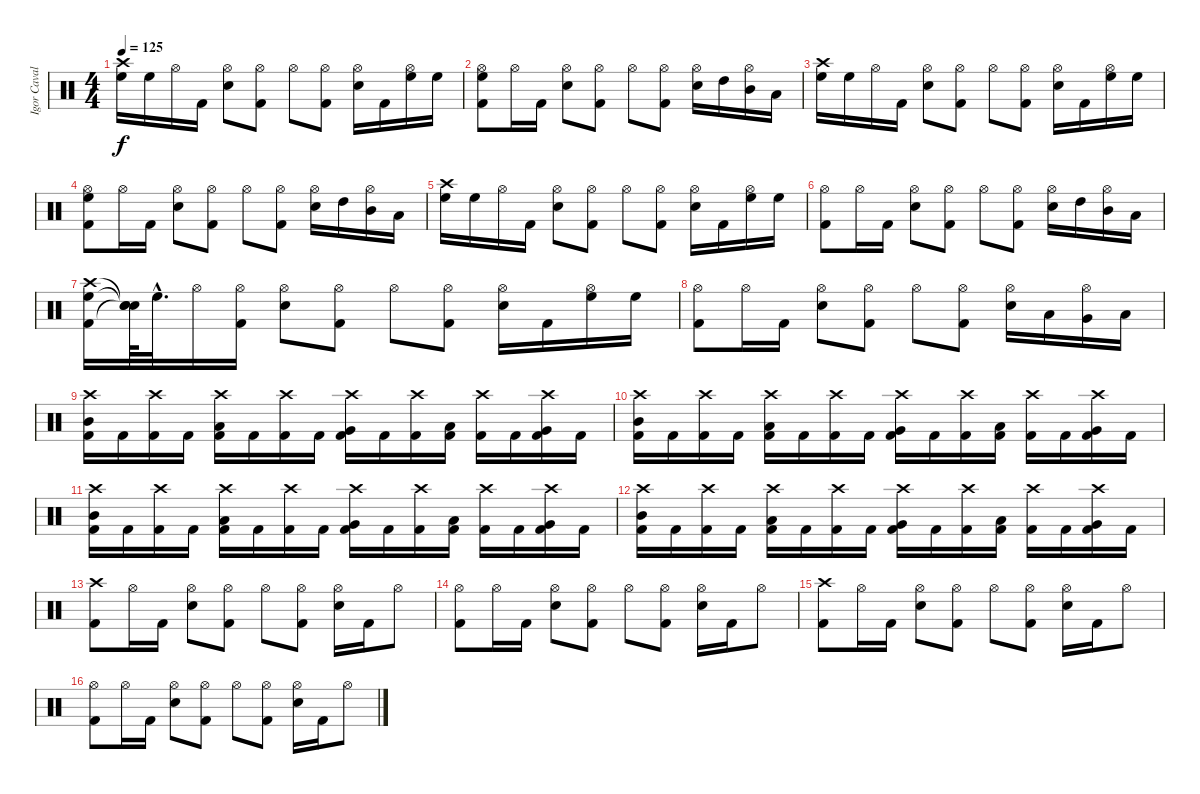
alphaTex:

\track ("Igor Cavalera" "Igor Caval") {instrument percussion}
\staff {score}
\articulation defaults
\ts (4 4)
\tempo 125
\clef neutral
\ks c
("Crash high (hit)" "High Floor Tom (hit)").16{dy f} "High Floor Tom (hit)".16 "Hi-Hat (open)".16 "Kick (hit) 2".16 ("Hi-Hat (open)" "Electric Snare (hit)").8 ("Hi-Hat (open)" "Kick (hit) 2").8 "Hi-Hat (open)".8 ("Hi-Hat (open)" "Kick (hit) 2").8 ("Hi-Hat (open)" "Electric Snare (hit)").16 "Kick (hit) 2".16 ("Hi-Hat (open)" "High Floor Tom (hit)").16 "High Floor Tom (hit)".16 |
("Hi-Hat (open)" "High Floor Tom (hit)" "Kick (hit) 2").8 "Hi-Hat (open)".16 "Kick (hit) 2".16 ("Hi-Hat (open)" "Electric Snare (hit)").8 ("Hi-Hat (open)" "Kick (hit) 2").8 "Hi-Hat (open)".8 ("Hi-Hat (open)" "Kick (hit) 2").8 ("Hi-Hat (open)" "Electric Snare (hit)").16 "High Tom (hit)".16 ("Hi-Hat (open)" "Mid Tom (hit)").16 "Low Tom (hit)".16 |
("Crash high (hit)" "High Floor Tom (hit)").16 "High Floor Tom (hit)".16 "Hi-Hat (open)".16 "Kick (hit) 2".16 ("Hi-Hat (open)" "Electric Snare (hit)").8 ("Hi-Hat (open)" "Kick (hit) 2").8 "Hi-Hat (open)".8 ("Hi-Hat (open)" "Kick (hit) 2").8 ("Hi-Hat (open)" "Electric Snare (hit)").16 "Kick (hit) 2".16 ("Hi-Hat (open)" "High Floor Tom (hit)").16 "High Floor Tom (hit)".16 |
("Hi-Hat (open)" "High Floor Tom (hit)" "Kick (hit) 2").8 "Hi-Hat (open)".16 "Kick (hit) 2".16 ("Hi-Hat (open)" "Electric Snare (hit)").8 ("Hi-Hat (open)" "Kick (hit) 2").8 "Hi-Hat (open)".8 ("Hi-Hat (open)" "Kick (hit) 2").8 ("Hi-Hat (open)" "Electric Snare (hit)").16 "High Tom (hit)".16 ("Hi-Hat (open)" "Mid Tom (hit)").16 "Low Tom (hit)".16 |
("Crash high (hit)" "High Floor Tom (hit)").16 "High Floor Tom (hit)".16 "Hi-Hat (open)".16 "Kick (hit) 2".16 ("Hi-Hat (open)" "Electric Snare (hit)").8 ("Hi-Hat (open)" "Kick (hit) 2").8 "Hi-Hat (open)".8 ("Hi-Hat (open)" "Kick (hit) 2").8 ("Hi-Hat (open)" "Electric Snare (hit)").16 "Kick (hit) 2".16 ("Hi-Hat (open)" "High Floor Tom (hit)").16 "High Floor Tom (hit)".16 |
("Hi-Hat (open)" "Kick (hit) 2").8 "Hi-Hat (open)".16 "Kick (hit) 2".16 ("Hi-Hat (open)" "Electric Snare (hit)").8 ("Hi-Hat (open)" "Kick (hit) 2").8 "Hi-Hat (open)".8 ("Hi-Hat (open)" "Kick (hit) 2").8 ("Hi-Hat (open)" "Electric Snare (hit)").16 "High Tom (hit)".16 ("Hi-Hat (open)" "Mid Tom (hit)").16 "Low Tom (hit)".16 |
("Crash high (hit)" "High Floor Tom (hit)" "Kick (hit) 2").16 ("Snare (hit)"{t} "Snare (hit)"{t} "Snare (hit)"{t}).64 "High Floor Tom (hit)"{hac}.32{d} "Hi-Hat (open)".16 ("Hi-Hat (open)" "Kick (hit) 2").16 ("Hi-Hat (open)" "Electric Snare (hit)").8 ("Hi-Hat (open)" "Kick (hit) 2").8 "Hi-Hat (open)".8 ("Hi-Hat (open)" "Kick (hit) 2").8 ("Hi-Hat (open)" "Electric Snare (hit)").16 "Kick (hit) 2".16 ("Hi-Hat (open)" "High Floor Tom (hit)").16 "High Floor Tom (hit)".16 |
("Hi-Hat (open)" "Kick (hit) 2").8 "Hi-Hat (open)".16 "Kick (hit) 2".16 ("Hi-Hat (open)" "Electric Snare (hit)").8 ("Hi-Hat (open)" "Kick (hit) 2").8 "Hi-Hat (open)".8 ("Hi-Hat (open)" "Kick (hit) 2").8 ("Hi-Hat (open)" "Electric Snare (hit)").16 "Low Tom (hit)".16 ("Hi-Hat (open)" "Very Low Tom (hit)").16 "Low Floor Tom (hit)".16 |
("Crash high (hit)" "Mid Tom (hit)" "Kick (hit) 2").16 "Kick (hit) 2".16 ("Crash high (hit)" "Kick (hit) 2").16 "Kick (hit) 2".16 ("Crash high (hit)" "Low Tom (hit)" "Kick (hit) 2").16 "Kick (hit) 2".16 ("Crash high (hit)" "Kick (hit) 2").16 "Kick (hit) 2".16 ("Crash high (hit)" "Very Low Tom (hit)" "Kick (hit) 2").16 "Kick (hit) 2".16 ("Crash high (hit)" "Kick (hit) 2").16 ("Low Floor Tom (hit)" "Kick (hit) 2").16 ("Crash high (hit)" "Kick (hit) 2").16 "Kick (hit) 2".16 ("Crash high (hit)" "Very Low Tom (hit)" "Kick (hit) 2").16 "Kick (hit) 2".16 |
("Crash high (hit)" "Mid Tom (hit)" "Kick (hit) 2").16 "Kick (hit) 2".16 ("Crash high (hit)" "Kick (hit) 2").16 "Kick (hit) 2".16 ("Crash high (hit)" "Low Tom (hit)" "Kick (hit) 2").16 "Kick (hit) 2".16 ("Crash high (hit)" "Kick (hit) 2").16 "Kick (hit) 2".16 ("Crash high (hit)" "Very Low Tom (hit)" "Kick (hit) 2").16 "Kick (hit) 2".16 ("Crash high (hit)" "Kick (hit) 2").16 ("Low Floor Tom (hit)" "Kick (hit) 2").16 ("Crash high (hit)" "Kick (hit) 2").16 "Kick (hit) 2".16 ("Crash high (hit)" "Very Low Tom (hit)" "Kick (hit) 2").16 "Kick (hit) 2".16 |
("Crash high (hit)" "Mid Tom (hit)" "Kick (hit) 2").16 "Kick (hit) 2".16 ("Crash high (hit)" "Kick (hit) 2").16 "Kick (hit) 2".16 ("Crash high (hit)" "Low Tom (hit)" "Kick (hit) 2").16 "Kick (hit) 2".16 ("Crash high (hit)" "Kick (hit) 2").16 "Kick (hit) 2".16 ("Crash high (hit)" "Very Low Tom (hit)" "Kick (hit) 2").16 "Kick (hit) 2".16 ("Crash high (hit)" "Kick (hit) 2").16 ("Low Floor Tom (hit)" "Kick (hit) 2").16 ("Crash high (hit)" "Kick (hit) 2").16 "Kick (hit) 2".16 ("Crash high (hit)" "Very Low Tom (hit)" "Kick (hit) 2").16 "Kick (hit) 2".16 |
("Crash high (hit)" "Mid Tom (hit)" "Kick (hit) 2").16 "Kick (hit) 2".16 ("Crash high (hit)" "Kick (hit) 2").16 "Kick (hit) 2".16 ("Crash high (hit)" "Low Tom (hit)" "Kick (hit) 2").16 "Kick (hit) 2".16 ("Crash high (hit)" "Kick (hit) 2").16 "Kick (hit) 2".16 ("Crash high (hit)" "Very Low Tom (hit)" "Kick (hit) 2").16 "Kick (hit) 2".16 ("Crash high (hit)" "Kick (hit) 2").16 ("Low Floor Tom (hit)" "Kick (hit) 2").16 ("Crash high (hit)" "Kick (hit) 2").16 "Kick (hit) 2".16 ("Crash high (hit)" "Very Low Tom (hit)" "Kick (hit) 2").16 "Kick (hit) 2".16 |
("Crash high (hit)" "Kick (hit) 2").8 "Hi-Hat (open)".16 "Kick (hit) 2".16 ("Hi-Hat (open)" "Electric Snare (hit)").8 ("Hi-Hat (open)" "Kick (hit) 2").8 "Hi-Hat (open)".8 ("Hi-Hat (open)" "Kick (hit) 2").8 ("Hi-Hat (open)" "Electric Snare (hit)").16 "Kick (hit) 2".16 "Hi-Hat (open)".8 |
("Hi-Hat (open)" "Kick (hit) 2").8 "Hi-Hat (open)".16 "Kick (hit) 2".16 ("Hi-Hat (open)" "Electric Snare (hit)").8 ("Hi-Hat (open)" "Kick (hit) 2").8 "Hi-Hat (open)".8 ("Hi-Hat (open)" "Kick (hit) 2").8 ("Hi-Hat (open)" "Electric Snare (hit)").16 "Kick (hit) 2".16 "Hi-Hat (open)".8 |
("Crash high (hit)" "Kick (hit) 2").8 "Hi-Hat (open)".16 "Kick (hit) 2".16 ("Hi-Hat (open)" "Electric Snare (hit)").8 ("Hi-Hat (open)" "Kick (hit) 2").8 "Hi-Hat (open)".8 ("Hi-Hat (open)" "Kick (hit) 2").8 ("Hi-Hat (open)" "Electric Snare (hit)").16 "Kick (hit) 2".16 "Hi-Hat (open)".8 |
("Hi-Hat (open)" "Kick (hit) 2").8 "Hi-Hat (open)".16 "Kick (hit) 2".16 ("Hi-Hat (open)" "Electric Snare (hit)").8 ("Hi-Hat (open)" "Kick (hit) 2").8 "Hi-Hat (open)".8 ("Hi-Hat (open)" "Kick (hit) 2").8 ("Hi-Hat (open)" "Electric Snare (hit)").16 "Kick (hit) 2".16 "Hi-Hat (open)".8
